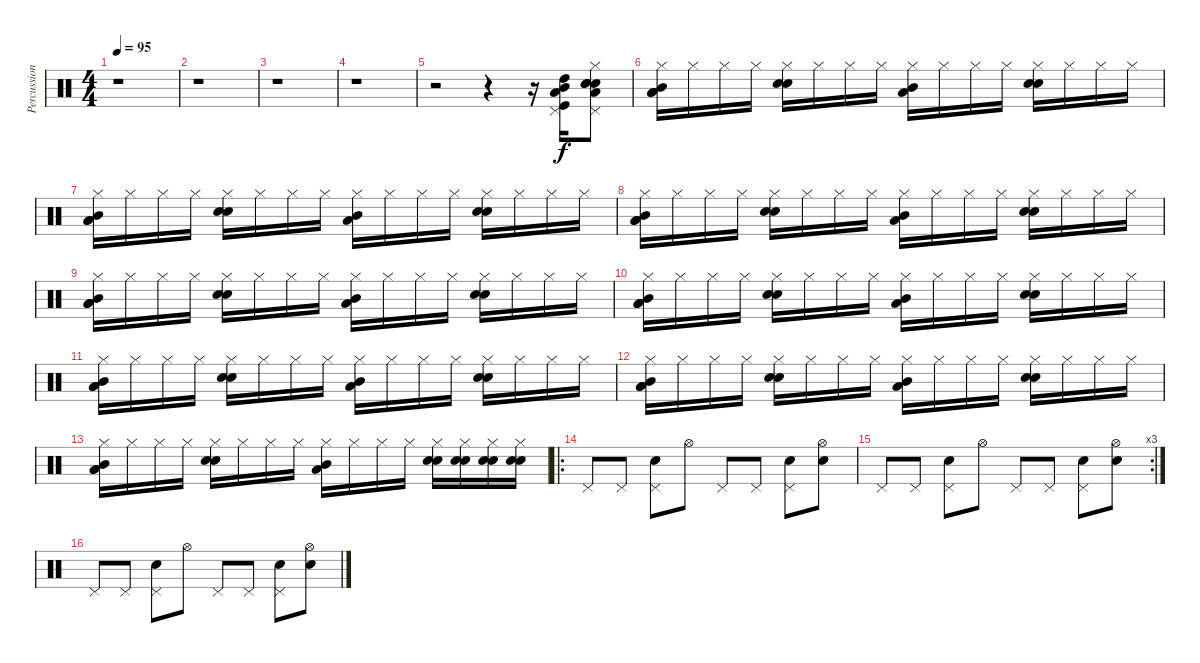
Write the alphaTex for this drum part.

\track ("Percussion" "Percussion") {instrument percussion}
\staff {score}
\articulation defaults
\ts (4 4)
\tempo 95
\clef neutral
\ks c
r.1{dy f} |
r.1 |
r.1 |
r.1 |
r.2 r.4 r.16 ("Mid Tom (hit)" "Kick (hit)" "Pedal Hi-Hat (hit)" "High Tom (hit)" "Low Floor Tom (hit)").16 ("Pedal Hi-Hat (hit)" "Snare (hit) 2" "Electric Snare (hit)" "Low Floor Tom (hit)" "Hi-Hat (closed)" "Electric Snare (hit)").8 |
("Hi-Hat (closed)" "Low Floor Tom (hit)" "Mid Tom (hit)" "Low Tom (hit)").16 "Hi-Hat (closed)".16 "Hi-Hat (closed)".16 "Hi-Hat (closed)".16 ("Hi-Hat (closed)" "Electric Snare (hit)" "Snare (hit) 2").16 "Hi-Hat (closed)".16 "Hi-Hat (closed)".16 "Hi-Hat (closed)".16 ("Hi-Hat (closed)" "Mid Tom (hit)" "Low Tom (hit)").16 "Hi-Hat (closed)".16 "Hi-Hat (closed)".16 "Hi-Hat (closed)".16 ("Hi-Hat (closed)" "Snare (hit) 2" "Electric Snare (hit)").16 "Hi-Hat (closed)".16 "Hi-Hat (closed)".16 "Hi-Hat (closed)".16 |
("Hi-Hat (closed)" "Low Floor Tom (hit)" "Mid Tom (hit)" "Low Tom (hit)").16 "Hi-Hat (closed)".16 "Hi-Hat (closed)".16 "Hi-Hat (closed)".16 ("Hi-Hat (closed)" "Electric Snare (hit)" "Snare (hit) 2").16 "Hi-Hat (closed)".16 "Hi-Hat (closed)".16 "Hi-Hat (closed)".16 ("Hi-Hat (closed)" "Mid Tom (hit)" "Low Tom (hit)").16 "Hi-Hat (closed)".16 "Hi-Hat (closed)".16 "Hi-Hat (closed)".16 ("Hi-Hat (closed)" "Snare (hit) 2" "Electric Snare (hit)").16 "Hi-Hat (closed)".16 "Hi-Hat (closed)".16 "Hi-Hat (closed)".16 |
("Hi-Hat (closed)" "Low Floor Tom (hit)" "Mid Tom (hit)" "Low Tom (hit)").16 "Hi-Hat (closed)".16 "Hi-Hat (closed)".16 "Hi-Hat (closed)".16 ("Hi-Hat (closed)" "Electric Snare (hit)" "Snare (hit) 2").16 "Hi-Hat (closed)".16 "Hi-Hat (closed)".16 "Hi-Hat (closed)".16 ("Hi-Hat (closed)" "Mid Tom (hit)" "Low Tom (hit)").16 "Hi-Hat (closed)".16 "Hi-Hat (closed)".16 "Hi-Hat (closed)".16 ("Hi-Hat (closed)" "Snare (hit) 2" "Electric Snare (hit)").16 "Hi-Hat (closed)".16 "Hi-Hat (closed)".16 "Hi-Hat (closed)".16 |
("Hi-Hat (closed)" "Low Floor Tom (hit)" "Mid Tom (hit)" "Low Tom (hit)").16 "Hi-Hat (closed)".16 "Hi-Hat (closed)".16 "Hi-Hat (closed)".16 ("Hi-Hat (closed)" "Electric Snare (hit)" "Snare (hit) 2").16 "Hi-Hat (closed)".16 "Hi-Hat (closed)".16 "Hi-Hat (closed)".16 ("Hi-Hat (closed)" "Mid Tom (hit)" "Low Tom (hit)").16 "Hi-Hat (closed)".16 "Hi-Hat (closed)".16 "Hi-Hat (closed)".16 ("Hi-Hat (closed)" "Snare (hit) 2" "Electric Snare (hit)").16 "Hi-Hat (closed)".16 "Hi-Hat (closed)".16 "Hi-Hat (closed)".16 |
("Hi-Hat (closed)" "Low Floor Tom (hit)" "Mid Tom (hit)" "Low Tom (hit)").16 "Hi-Hat (closed)".16 "Hi-Hat (closed)".16 "Hi-Hat (closed)".16 ("Hi-Hat (closed)" "Electric Snare (hit)" "Snare (hit) 2").16 "Hi-Hat (closed)".16 "Hi-Hat (closed)".16 "Hi-Hat (closed)".16 ("Hi-Hat (closed)" "Mid Tom (hit)" "Low Tom (hit)").16 "Hi-Hat (closed)".16 "Hi-Hat (closed)".16 "Hi-Hat (closed)".16 ("Hi-Hat (closed)" "Snare (hit) 2" "Electric Snare (hit)").16 "Hi-Hat (closed)".16 "Hi-Hat (closed)".16 "Hi-Hat (closed)".16 |
("Hi-Hat (closed)" "Low Floor Tom (hit)" "Mid Tom (hit)" "Low Tom (hit)").16 "Hi-Hat (closed)".16 "Hi-Hat (closed)".16 "Hi-Hat (closed)".16 ("Hi-Hat (closed)" "Electric Snare (hit)" "Snare (hit) 2").16 "Hi-Hat (closed)".16 "Hi-Hat (closed)".16 "Hi-Hat (closed)".16 ("Hi-Hat (closed)" "Mid Tom (hit)" "Low Tom (hit)").16 "Hi-Hat (closed)".16 "Hi-Hat (closed)".16 "Hi-Hat (closed)".16 ("Hi-Hat (closed)" "Snare (hit) 2" "Electric Snare (hit)").16 "Hi-Hat (closed)".16 "Hi-Hat (closed)".16 "Hi-Hat (closed)".16 |
("Hi-Hat (closed)" "Low Floor Tom (hit)" "Mid Tom (hit)" "Low Tom (hit)").16 "Hi-Hat (closed)".16 "Hi-Hat (closed)".16 "Hi-Hat (closed)".16 ("Hi-Hat (closed)" "Electric Snare (hit)" "Snare (hit) 2").16 "Hi-Hat (closed)".16 "Hi-Hat (closed)".16 "Hi-Hat (closed)".16 ("Hi-Hat (closed)" "Mid Tom (hit)" "Low Tom (hit)").16 "Hi-Hat (closed)".16 "Hi-Hat (closed)".16 "Hi-Hat (closed)".16 ("Hi-Hat (closed)" "Snare (hit) 2" "Electric Snare (hit)").16 "Hi-Hat (closed)".16 "Hi-Hat (closed)".16 "Hi-Hat (closed)".16 |
("Hi-Hat (closed)" "Low Floor Tom (hit)" "Mid Tom (hit)" "Low Tom (hit)").16 "Hi-Hat (closed)".16 "Hi-Hat (closed)".16 "Hi-Hat (closed)".16 ("Hi-Hat (closed)" "Electric Snare (hit)" "Snare (hit) 2").16 "Hi-Hat (closed)".16 "Hi-Hat (closed)".16 "Hi-Hat (closed)".16 ("Hi-Hat (closed)" "Mid Tom (hit)" "Low Tom (hit)").16 "Hi-Hat (closed)".16 "Hi-Hat (closed)".16 "Hi-Hat (closed)".16 ("Hi-Hat (closed)" "Snare (hit) 2" "Electric Snare (hit)").16 ("Hi-Hat (closed)" "Snare (hit) 2" "Electric Snare (hit)").16 ("Hi-Hat (closed)" "Snare (hit) 2" "Electric Snare (hit)").16 ("Hi-Hat (closed)" "Snare (hit) 2" "Electric Snare (hit)").16 |
\ro "Pedal Hi-Hat (hit)".8 "Pedal Hi-Hat (hit)".8
("Pedal Hi-Hat (hit)" "Electric Snare (hit)").8 "Hi-Hat (open)".8 "Pedal Hi-Hat (hit)".8 "Pedal Hi-Hat (hit)".8 ("Pedal Hi-Hat (hit)" "Electric Snare (hit)").8 ("Hi-Hat (open)" "Electric Snare (hit)").8 |
\rc 3 "Pedal Hi-Hat (hit)".8 "Pedal Hi-Hat (hit)".8
("Pedal Hi-Hat (hit)" "Electric Snare (hit)").8 "Hi-Hat (open)".8 "Pedal Hi-Hat (hit)".8 "Pedal Hi-Hat (hit)".8 ("Pedal Hi-Hat (hit)" "Electric Snare (hit)").8 ("Hi-Hat (open)" "Electric Snare (hit)").8 |
"Pedal Hi-Hat (hit)".8 "Pedal Hi-Hat (hit)".8 ("Pedal Hi-Hat (hit)" "Electric Snare (hit)").8 "Hi-Hat (open)".8 "Pedal Hi-Hat (hit)".8 "Pedal Hi-Hat (hit)".8 ("Pedal Hi-Hat (hit)" "Electric Snare (hit)").8 ("Hi-Hat (open)" "Electric Snare (hit)").8
